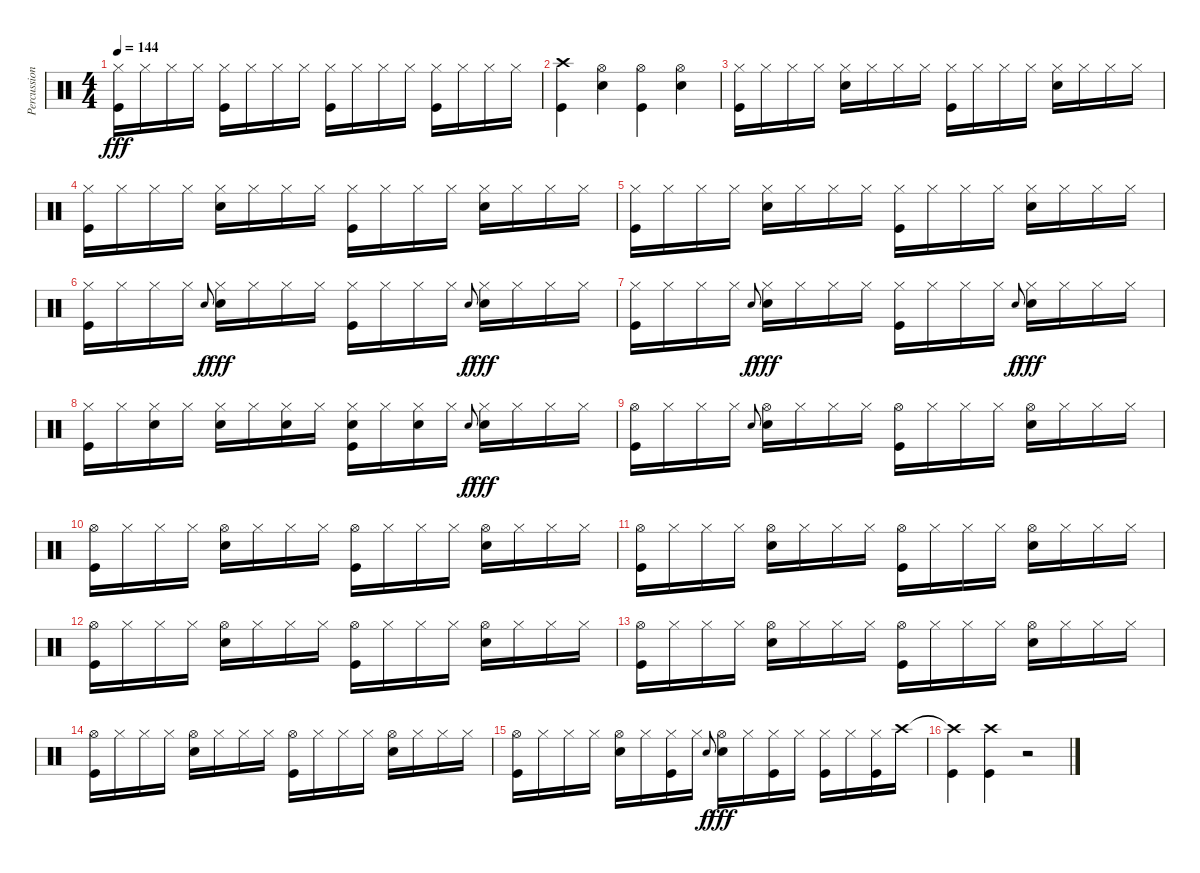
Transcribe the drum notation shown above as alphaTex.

\track ("Percussions" "Percussion") {instrument percussion}
\staff {score}
\articulation defaults
\ts (4 4)
\tempo 144
\clef neutral
\ks c
("Hi-Hat (closed)" "Kick (hit)").16{dy fff} "Hi-Hat (closed)".16 "Hi-Hat (closed)".16 "Hi-Hat (closed)".16 ("Hi-Hat (closed)" "Kick (hit)").16 "Hi-Hat (closed)".16 "Hi-Hat (closed)".16 "Hi-Hat (closed)".16 ("Hi-Hat (closed)" "Kick (hit)").16 "Hi-Hat (closed)".16 "Hi-Hat (closed)".16 "Hi-Hat (closed)".16 ("Hi-Hat (closed)" "Kick (hit)").16 "Hi-Hat (closed)".16 "Hi-Hat (closed)".16 "Hi-Hat (closed)".16 |
("Crash high (hit)" "Kick (hit)").4 ("Hi-Hat (open)" "Snare (hit) 2").4 ("Hi-Hat (open)" "Kick (hit)").4 ("Hi-Hat (open)" "Snare (hit) 2").4 |
("Hi-Hat (closed)" "Kick (hit)").16 "Hi-Hat (closed)".16 "Hi-Hat (closed)".16 "Hi-Hat (closed)".16 ("Hi-Hat (closed)" "Snare (hit) 2").16 "Hi-Hat (closed)".16 "Hi-Hat (closed)".16 "Hi-Hat (closed)".16 ("Hi-Hat (closed)" "Kick (hit)").16 "Hi-Hat (closed)".16 "Hi-Hat (closed)".16 "Hi-Hat (closed)".16 ("Hi-Hat (closed)" "Snare (hit) 2").16 "Hi-Hat (closed)".16 "Hi-Hat (closed)".16 "Hi-Hat (closed)".16 |
("Hi-Hat (closed)" "Kick (hit)").16 "Hi-Hat (closed)".16 "Hi-Hat (closed)".16 "Hi-Hat (closed)".16 ("Hi-Hat (closed)" "Snare (hit) 2").16 "Hi-Hat (closed)".16 "Hi-Hat (closed)".16 "Hi-Hat (closed)".16 ("Hi-Hat (closed)" "Kick (hit)").16 "Hi-Hat (closed)".16 "Hi-Hat (closed)".16 "Hi-Hat (closed)".16 ("Hi-Hat (closed)" "Snare (hit) 2").16 "Hi-Hat (closed)".16 "Hi-Hat (closed)".16 "Hi-Hat (closed)".16 |
("Hi-Hat (closed)" "Kick (hit)").16 "Hi-Hat (closed)".16 "Hi-Hat (closed)".16 "Hi-Hat (closed)".16 ("Hi-Hat (closed)" "Snare (hit) 2").16 "Hi-Hat (closed)".16 "Hi-Hat (closed)".16 "Hi-Hat (closed)".16 ("Hi-Hat (closed)" "Kick (hit)").16 "Hi-Hat (closed)".16 "Hi-Hat (closed)".16 "Hi-Hat (closed)".16 ("Hi-Hat (closed)" "Snare (hit) 2").16 "Hi-Hat (closed)".16 "Hi-Hat (closed)".16 "Hi-Hat (closed)".16 |
("Hi-Hat (closed)" "Kick (hit)").16 "Hi-Hat (closed)".16 "Hi-Hat (closed)".16 "Hi-Hat (closed)".16 "Snare (hit) 2".8{gr onbeat dy f} ("Hi-Hat (closed)" "Snare (hit) 2").16{dy fff} "Hi-Hat (closed)".16 "Hi-Hat (closed)".16 "Hi-Hat (closed)".16 ("Hi-Hat (closed)" "Kick (hit)").16 "Hi-Hat (closed)".16 "Hi-Hat (closed)".16 "Hi-Hat (closed)".16 "Snare (hit) 2".8{gr onbeat dy f} ("Hi-Hat (closed)" "Snare (hit) 2").16{dy fff} "Hi-Hat (closed)".16 "Hi-Hat (closed)".16 "Hi-Hat (closed)".16 |
("Hi-Hat (closed)" "Kick (hit)").16 "Hi-Hat (closed)".16 "Hi-Hat (closed)".16 "Hi-Hat (closed)".16 "Snare (hit) 2".8{gr onbeat dy f} ("Hi-Hat (closed)" "Snare (hit) 2").16{dy fff} "Hi-Hat (closed)".16 "Hi-Hat (closed)".16 "Hi-Hat (closed)".16 ("Hi-Hat (closed)" "Kick (hit)").16 "Hi-Hat (closed)".16 "Hi-Hat (closed)".16 "Hi-Hat (closed)".16 "Snare (hit) 2".8{gr onbeat dy f} ("Hi-Hat (closed)" "Snare (hit) 2").16{dy fff} "Hi-Hat (closed)".16 "Hi-Hat (closed)".16 "Hi-Hat (closed)".16 |
("Hi-Hat (closed)" "Kick (hit)").16 "Hi-Hat (closed)".16 ("Hi-Hat (closed)" "Snare (hit) 2").16 "Hi-Hat (closed)".16 ("Hi-Hat (closed)" "Snare (hit) 2").16 "Hi-Hat (closed)".16 ("Hi-Hat (closed)" "Snare (hit) 2").16 "Hi-Hat (closed)".16 ("Hi-Hat (closed)" "Snare (hit) 2" "Kick (hit)").16 "Hi-Hat (closed)".16 ("Hi-Hat (closed)" "Snare (hit) 2").16 "Hi-Hat (closed)".16 "Snare (hit) 2".8{gr onbeat dy f} ("Hi-Hat (closed)" "Snare (hit) 2").16{dy fff} "Hi-Hat (closed)".16 "Hi-Hat (closed)".16 "Hi-Hat (closed)".16 |
("Hi-Hat (open)" "Kick (hit)").16 "Hi-Hat (closed)".16 "Hi-Hat (closed)".16 "Hi-Hat (closed)".16 "Snare (hit) 2".8{gr onbeat} ("Hi-Hat (open)" "Snare (hit) 2").16 "Hi-Hat (closed)".16 "Hi-Hat (closed)".16 "Hi-Hat (closed)".16 ("Hi-Hat (open)" "Kick (hit)").16 "Hi-Hat (closed)".16 "Hi-Hat (closed)".16 "Hi-Hat (closed)".16 ("Hi-Hat (open)" "Snare (hit) 2").16 "Hi-Hat (closed)".16 "Hi-Hat (closed)".16 "Hi-Hat (closed)".16 |
("Hi-Hat (open)" "Kick (hit)").16 "Hi-Hat (closed)".16 "Hi-Hat (closed)".16 "Hi-Hat (closed)".16 ("Hi-Hat (open)" "Snare (hit) 2").16 "Hi-Hat (closed)".16 "Hi-Hat (closed)".16 "Hi-Hat (closed)".16 ("Hi-Hat (open)" "Kick (hit)").16 "Hi-Hat (closed)".16 "Hi-Hat (closed)".16 "Hi-Hat (closed)".16 ("Hi-Hat (open)" "Snare (hit) 2").16 "Hi-Hat (closed)".16 "Hi-Hat (closed)".16 "Hi-Hat (closed)".16 |
("Hi-Hat (open)" "Kick (hit)").16 "Hi-Hat (closed)".16 "Hi-Hat (closed)".16 "Hi-Hat (closed)".16 ("Hi-Hat (open)" "Snare (hit) 2").16 "Hi-Hat (closed)".16 "Hi-Hat (closed)".16 "Hi-Hat (closed)".16 ("Hi-Hat (open)" "Kick (hit)").16 "Hi-Hat (closed)".16 "Hi-Hat (closed)".16 "Hi-Hat (closed)".16 ("Hi-Hat (open)" "Snare (hit) 2").16 "Hi-Hat (closed)".16 "Hi-Hat (closed)".16 "Hi-Hat (closed)".16 |
("Hi-Hat (open)" "Kick (hit)").16 "Hi-Hat (closed)".16 "Hi-Hat (closed)".16 "Hi-Hat (closed)".16 ("Hi-Hat (open)" "Snare (hit) 2").16 "Hi-Hat (closed)".16 "Hi-Hat (closed)".16 "Hi-Hat (closed)".16 ("Hi-Hat (open)" "Kick (hit)").16 "Hi-Hat (closed)".16 "Hi-Hat (closed)".16 "Hi-Hat (closed)".16 ("Hi-Hat (open)" "Snare (hit) 2").16 "Hi-Hat (closed)".16 "Hi-Hat (closed)".16 "Hi-Hat (closed)".16 |
("Hi-Hat (open)" "Kick (hit)").16 "Hi-Hat (closed)".16 "Hi-Hat (closed)".16 "Hi-Hat (closed)".16 ("Hi-Hat (open)" "Snare (hit) 2").16 "Hi-Hat (closed)".16 "Hi-Hat (closed)".16 "Hi-Hat (closed)".16 ("Hi-Hat (open)" "Kick (hit)").16 "Hi-Hat (closed)".16 "Hi-Hat (closed)".16 "Hi-Hat (closed)".16 ("Hi-Hat (open)" "Snare (hit) 2").16 "Hi-Hat (closed)".16 "Hi-Hat (closed)".16 "Hi-Hat (closed)".16 |
("Hi-Hat (open)" "Kick (hit)").16 "Hi-Hat (closed)".16 "Hi-Hat (closed)".16 "Hi-Hat (closed)".16 ("Hi-Hat (open)" "Snare (hit) 2").16 "Hi-Hat (closed)".16 "Hi-Hat (closed)".16 "Hi-Hat (closed)".16 ("Hi-Hat (open)" "Kick (hit)").16 "Hi-Hat (closed)".16 "Hi-Hat (closed)".16 "Hi-Hat (closed)".16 ("Hi-Hat (open)" "Snare (hit) 2").16 "Hi-Hat (closed)".16 "Hi-Hat (closed)".16 "Hi-Hat (closed)".16 |
("Hi-Hat (open)" "Kick (hit)").16 "Hi-Hat (closed)".16 "Hi-Hat (closed)".16 "Hi-Hat (closed)".16 ("Hi-Hat (open)" "Snare (hit) 2").16 "Hi-Hat (closed)".16 ("Hi-Hat (closed)" "Kick (hit)").16 "Hi-Hat (closed)".16 "Snare (hit) 2".8{gr onbeat dy f} ("Hi-Hat (open)" "Snare (hit) 2").16{dy fff} "Hi-Hat (closed)".16 ("Hi-Hat (closed)" "Kick (hit)").16 "Hi-Hat (closed)".16 ("Hi-Hat (closed)" "Kick (hit)").16 "Hi-Hat (closed)".16 ("Hi-Hat (closed)" "Kick (hit)").16 "Crash high (hit)".16 |
("Crash high (hit)"{t} "Kick (hit)").4 ("Crash high (hit)" "Kick (hit)").4 r.2
